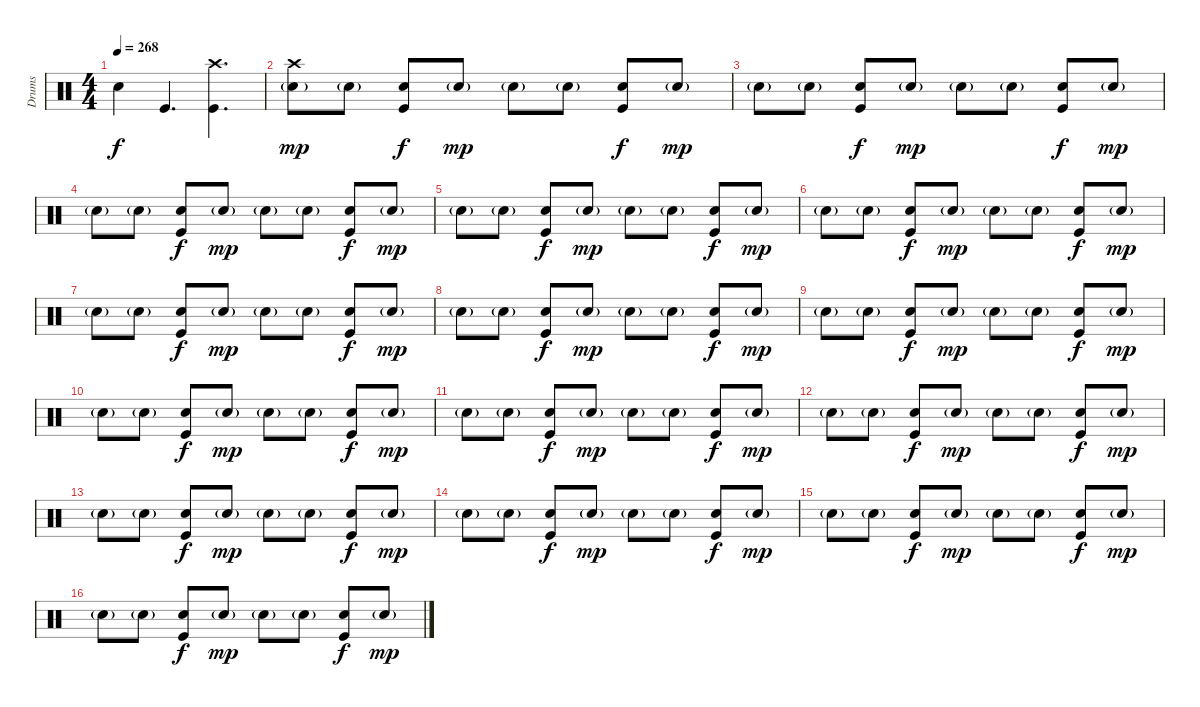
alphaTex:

\track ("Drums" "Drums") {instrument percussion}
\staff {score}
\articulation defaults
\ts (4 4)
\tempo 268
\clef neutral
\ks c "Electric Snare (hit)".4{dy f} "Kick (hit)".4{d}
("Crash high (hit)" "Kick (hit)").4{d} |
("Crash high (hit)" "Electric Snare (hit)"{g}).8{dy mp} "Electric Snare (hit)"{g}.8 ("Electric Snare (hit)" "Kick (hit)").8{dy f} "Electric Snare (hit)"{g}.8{dy mp} "Electric Snare (hit)"{g}.8 "Electric Snare (hit)"{g}.8 ("Electric Snare (hit)" "Kick (hit)").8{dy f} "Electric Snare (hit)"{g}.8{dy mp} |
"Electric Snare (hit)"{g}.8 "Electric Snare (hit)"{g}.8 ("Electric Snare (hit)" "Kick (hit)").8{dy f} "Electric Snare (hit)"{g}.8{dy mp} "Electric Snare (hit)"{g}.8 "Electric Snare (hit)"{g}.8 ("Electric Snare (hit)" "Kick (hit)").8{dy f} "Electric Snare (hit)"{g}.8{dy mp} |
"Electric Snare (hit)"{g}.8 "Electric Snare (hit)"{g}.8 ("Electric Snare (hit)" "Kick (hit)").8{dy f} "Electric Snare (hit)"{g}.8{dy mp} "Electric Snare (hit)"{g}.8 "Electric Snare (hit)"{g}.8 ("Electric Snare (hit)" "Kick (hit)").8{dy f} "Electric Snare (hit)"{g}.8{dy mp} |
"Electric Snare (hit)"{g}.8 "Electric Snare (hit)"{g}.8 ("Electric Snare (hit)" "Kick (hit)").8{dy f} "Electric Snare (hit)"{g}.8{dy mp} "Electric Snare (hit)"{g}.8 "Electric Snare (hit)"{g}.8 ("Electric Snare (hit)" "Kick (hit)").8{dy f} "Electric Snare (hit)"{g}.8{dy mp} |
"Electric Snare (hit)"{g}.8 "Electric Snare (hit)"{g}.8 ("Electric Snare (hit)" "Kick (hit)").8{dy f} "Electric Snare (hit)"{g}.8{dy mp} "Electric Snare (hit)"{g}.8 "Electric Snare (hit)"{g}.8 ("Electric Snare (hit)" "Kick (hit)").8{dy f} "Electric Snare (hit)"{g}.8{dy mp} |
"Electric Snare (hit)"{g}.8 "Electric Snare (hit)"{g}.8 ("Electric Snare (hit)" "Kick (hit)").8{dy f} "Electric Snare (hit)"{g}.8{dy mp} "Electric Snare (hit)"{g}.8 "Electric Snare (hit)"{g}.8 ("Electric Snare (hit)" "Kick (hit)").8{dy f} "Electric Snare (hit)"{g}.8{dy mp} |
"Electric Snare (hit)"{g}.8 "Electric Snare (hit)"{g}.8 ("Electric Snare (hit)" "Kick (hit)").8{dy f} "Electric Snare (hit)"{g}.8{dy mp} "Electric Snare (hit)"{g}.8 "Electric Snare (hit)"{g}.8 ("Electric Snare (hit)" "Kick (hit)").8{dy f} "Electric Snare (hit)"{g}.8{dy mp} |
"Electric Snare (hit)"{g}.8 "Electric Snare (hit)"{g}.8 ("Electric Snare (hit)" "Kick (hit)").8{dy f} "Electric Snare (hit)"{g}.8{dy mp} "Electric Snare (hit)"{g}.8 "Electric Snare (hit)"{g}.8 ("Electric Snare (hit)" "Kick (hit)").8{dy f} "Electric Snare (hit)"{g}.8{dy mp} |
"Electric Snare (hit)"{g}.8 "Electric Snare (hit)"{g}.8 ("Electric Snare (hit)" "Kick (hit)").8{dy f} "Electric Snare (hit)"{g}.8{dy mp} "Electric Snare (hit)"{g}.8 "Electric Snare (hit)"{g}.8 ("Electric Snare (hit)" "Kick (hit)").8{dy f} "Electric Snare (hit)"{g}.8{dy mp} |
"Electric Snare (hit)"{g}.8 "Electric Snare (hit)"{g}.8 ("Electric Snare (hit)" "Kick (hit)").8{dy f} "Electric Snare (hit)"{g}.8{dy mp} "Electric Snare (hit)"{g}.8 "Electric Snare (hit)"{g}.8 ("Electric Snare (hit)" "Kick (hit)").8{dy f} "Electric Snare (hit)"{g}.8{dy mp} |
"Electric Snare (hit)"{g}.8 "Electric Snare (hit)"{g}.8 ("Electric Snare (hit)" "Kick (hit)").8{dy f} "Electric Snare (hit)"{g}.8{dy mp} "Electric Snare (hit)"{g}.8 "Electric Snare (hit)"{g}.8 ("Electric Snare (hit)" "Kick (hit)").8{dy f} "Electric Snare (hit)"{g}.8{dy mp} |
"Electric Snare (hit)"{g}.8 "Electric Snare (hit)"{g}.8 ("Electric Snare (hit)" "Kick (hit)").8{dy f} "Electric Snare (hit)"{g}.8{dy mp} "Electric Snare (hit)"{g}.8 "Electric Snare (hit)"{g}.8 ("Electric Snare (hit)" "Kick (hit)").8{dy f} "Electric Snare (hit)"{g}.8{dy mp} |
"Electric Snare (hit)"{g}.8 "Electric Snare (hit)"{g}.8 ("Electric Snare (hit)" "Kick (hit)").8{dy f} "Electric Snare (hit)"{g}.8{dy mp} "Electric Snare (hit)"{g}.8 "Electric Snare (hit)"{g}.8 ("Electric Snare (hit)" "Kick (hit)").8{dy f} "Electric Snare (hit)"{g}.8{dy mp} |
"Electric Snare (hit)"{g}.8 "Electric Snare (hit)"{g}.8 ("Electric Snare (hit)" "Kick (hit)").8{dy f} "Electric Snare (hit)"{g}.8{dy mp} "Electric Snare (hit)"{g}.8 "Electric Snare (hit)"{g}.8 ("Electric Snare (hit)" "Kick (hit)").8{dy f} "Electric Snare (hit)"{g}.8{dy mp} |
"Electric Snare (hit)"{g}.8 "Electric Snare (hit)"{g}.8 ("Electric Snare (hit)" "Kick (hit)").8{dy f} "Electric Snare (hit)"{g}.8{dy mp} "Electric Snare (hit)"{g}.8 "Electric Snare (hit)"{g}.8 ("Electric Snare (hit)" "Kick (hit)").8{dy f} "Electric Snare (hit)"{g}.8{dy mp}
